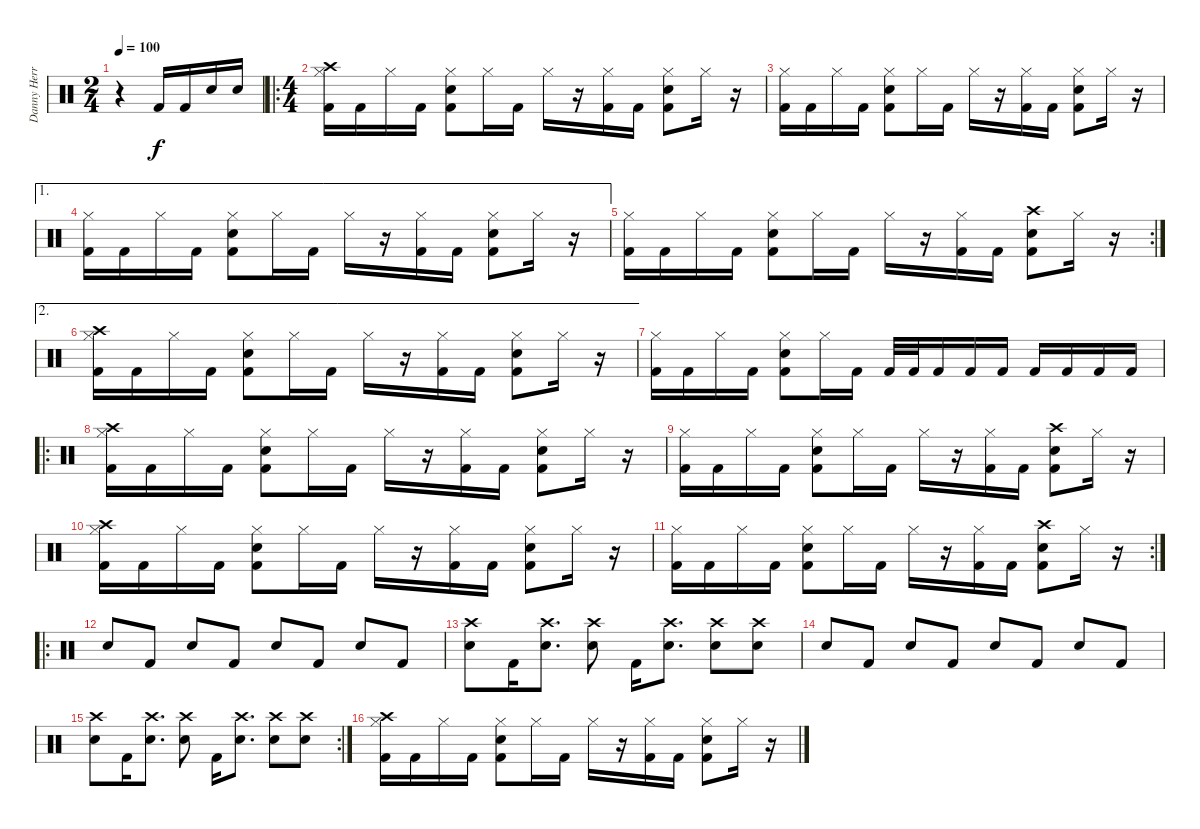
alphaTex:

\track ("Danny Herrera" "Danny Herr") {instrument percussion}
\staff {score}
\articulation defaults
\ts (2 4)
\tempo 100
\clef neutral
\ks c
r.4{dy f} "Kick (hit) 2".16 "Kick (hit) 2".16 "Snare (hit) 2".16 "Snare (hit) 2".16 |
\ro
\ts (4 4)
("Crash high (hit)" "Hi-Hat (closed)" "Kick (hit) 2").16 "Kick (hit) 2".16 "Hi-Hat (closed)".16 "Kick (hit) 2".16 ("Hi-Hat (closed)" "Snare (hit) 2" "Kick (hit) 2").8 "Hi-Hat (closed)".16 "Kick (hit) 2".16 "Hi-Hat (closed)".16 r.16 ("Hi-Hat (closed)" "Kick (hit) 2").16 "Kick (hit) 2".16 ("Hi-Hat (closed)" "Snare (hit) 2" "Kick (hit) 2").8 "Hi-Hat (closed)".16 r.16 |
("Hi-Hat (closed)" "Kick (hit) 2").16 "Kick (hit) 2".16 "Hi-Hat (closed)".16 "Kick (hit) 2".16 ("Hi-Hat (closed)" "Snare (hit) 2" "Kick (hit) 2").8 "Hi-Hat (closed)".16 "Kick (hit) 2".16 "Hi-Hat (closed)".16 r.16 ("Hi-Hat (closed)" "Kick (hit) 2").16 "Kick (hit) 2".16 ("Hi-Hat (closed)" "Snare (hit) 2" "Kick (hit) 2").8 "Hi-Hat (closed)".16 r.16 |
\ae 1
("Hi-Hat (closed)" "Kick (hit) 2").16 "Kick (hit) 2".16 "Hi-Hat (closed)".16 "Kick (hit) 2".16 ("Hi-Hat (closed)" "Snare (hit) 2" "Kick (hit) 2").8 "Hi-Hat (closed)".16 "Kick (hit) 2".16 "Hi-Hat (closed)".16 r.16 ("Hi-Hat (closed)" "Kick (hit) 2").16 "Kick (hit) 2".16 ("Hi-Hat (closed)" "Snare (hit) 2" "Kick (hit) 2").8 "Hi-Hat (closed)".16 r.16 |
\rc 2
("Hi-Hat (closed)" "Kick (hit) 2").16 "Kick (hit) 2".16 "Hi-Hat (closed)".16 "Kick (hit) 2".16 ("Hi-Hat (closed)" "Snare (hit) 2" "Kick (hit) 2").8 "Hi-Hat (closed)".16 "Kick (hit) 2".16 "Hi-Hat (closed)".16 r.16 ("Hi-Hat (closed)" "Kick (hit) 2").16 "Kick (hit) 2".16 ("Crash high (hit)" "Snare (hit) 2" "Kick (hit) 2").8 "Hi-Hat (closed)".16 r.16 |
\ae 2
("Crash high (hit)" "Hi-Hat (closed)" "Kick (hit) 2").16 "Kick (hit) 2".16 "Hi-Hat (closed)".16 "Kick (hit) 2".16 ("Hi-Hat (closed)" "Snare (hit) 2" "Kick (hit) 2").8 "Hi-Hat (closed)".16 "Kick (hit) 2".16 "Hi-Hat (closed)".16 r.16 ("Hi-Hat (closed)" "Kick (hit) 2").16 "Kick (hit) 2".16 ("Hi-Hat (closed)" "Snare (hit) 2" "Kick (hit) 2").8 "Hi-Hat (closed)".16 r.16 |
("Hi-Hat (closed)" "Kick (hit) 2").16 "Kick (hit) 2".16 "Hi-Hat (closed)".16 "Kick (hit) 2".16 ("Hi-Hat (closed)" "Snare (hit) 2" "Kick (hit) 2").8 "Hi-Hat (closed)".16 "Kick (hit) 2".16 "Kick (hit) 2".32 "Kick (hit) 2".32 "Kick (hit) 2".16 "Kick (hit) 2".16 "Kick (hit) 2".16 "Kick (hit) 2".16 "Kick (hit) 2".16 "Kick (hit) 2".16 "Kick (hit) 2".16 |
\ro
("Crash high (hit)" "Hi-Hat (closed)" "Kick (hit) 2").16 "Kick (hit) 2".16 "Hi-Hat (closed)".16 "Kick (hit) 2".16 ("Hi-Hat (closed)" "Snare (hit) 2" "Kick (hit) 2").8 "Hi-Hat (closed)".16 "Kick (hit) 2".16 "Hi-Hat (closed)".16 r.16 ("Hi-Hat (closed)" "Kick (hit) 2").16 "Kick (hit) 2".16 ("Hi-Hat (closed)" "Snare (hit) 2" "Kick (hit) 2").8 "Hi-Hat (closed)".16 r.16 |
("Hi-Hat (closed)" "Kick (hit) 2").16 "Kick (hit) 2".16 "Hi-Hat (closed)".16 "Kick (hit) 2".16 ("Hi-Hat (closed)" "Snare (hit) 2" "Kick (hit) 2").8 "Hi-Hat (closed)".16 "Kick (hit) 2".16 "Hi-Hat (closed)".16 r.16 ("Hi-Hat (closed)" "Kick (hit) 2").16 "Kick (hit) 2".16 ("Crash high (hit)" "Snare (hit) 2" "Kick (hit) 2").8 "Hi-Hat (closed)".16 r.16 |
("Crash high (hit)" "Hi-Hat (closed)" "Kick (hit) 2").16 "Kick (hit) 2".16 "Hi-Hat (closed)".16 "Kick (hit) 2".16 ("Hi-Hat (closed)" "Snare (hit) 2" "Kick (hit) 2").8 "Hi-Hat (closed)".16 "Kick (hit) 2".16 "Hi-Hat (closed)".16 r.16 ("Hi-Hat (closed)" "Kick (hit) 2").16 "Kick (hit) 2".16 ("Hi-Hat (closed)" "Snare (hit) 2" "Kick (hit) 2").8 "Hi-Hat (closed)".16 r.16 |
\rc 2
("Hi-Hat (closed)" "Kick (hit) 2").16 "Kick (hit) 2".16 "Hi-Hat (closed)".16 "Kick (hit) 2".16 ("Hi-Hat (closed)" "Snare (hit) 2" "Kick (hit) 2").8 "Hi-Hat (closed)".16 "Kick (hit) 2".16 "Hi-Hat (closed)".16 r.16 ("Hi-Hat (closed)" "Kick (hit) 2").16 "Kick (hit) 2".16 ("Crash high (hit)" "Snare (hit) 2" "Kick (hit) 2").8 "Hi-Hat (closed)".16 r.16 |
\ro "Snare (hit) 2".8 "Kick (hit) 2".8 "Snare (hit) 2".8 "Kick (hit) 2".8 "Snare (hit) 2".8 "Kick (hit) 2".8 "Snare (hit) 2".8 "Kick (hit) 2".8
|
("Crash high (hit)" "Snare (hit) 2").8 "Kick (hit) 2".16 ("Crash high (hit)" "Snare (hit) 2").8{d} ("Crash high (hit)" "Snare (hit) 2").8 "Kick (hit) 2".16 ("Crash high (hit)" "Snare (hit) 2").8{d} ("Crash high (hit)" "Snare (hit) 2").8 ("Crash high (hit)" "Snare (hit) 2").8 |
"Snare (hit) 2".8 "Kick (hit) 2".8 "Snare (hit) 2".8 "Kick (hit) 2".8 "Snare (hit) 2".8 "Kick (hit) 2".8 "Snare (hit) 2".8 "Kick (hit) 2".8 |
\rc 2
("Crash high (hit)" "Snare (hit) 2").8 "Kick (hit) 2".16 ("Crash high (hit)" "Snare (hit) 2").8{d} ("Crash high (hit)" "Snare (hit) 2").8 "Kick (hit) 2".16 ("Crash high (hit)" "Snare (hit) 2").8{d} ("Crash high (hit)" "Snare (hit) 2").8 ("Crash high (hit)" "Snare (hit) 2").8 |
("Crash high (hit)" "Hi-Hat (closed)" "Kick (hit) 2").16 "Kick (hit) 2".16 "Hi-Hat (closed)".16 "Kick (hit) 2".16 ("Hi-Hat (closed)" "Snare (hit) 2" "Kick (hit) 2").8 "Hi-Hat (closed)".16 "Kick (hit) 2".16 "Hi-Hat (closed)".16 r.16 ("Hi-Hat (closed)" "Kick (hit) 2").16 "Kick (hit) 2".16 ("Hi-Hat (closed)" "Snare (hit) 2" "Kick (hit) 2").8 "Hi-Hat (closed)".16 r.16
